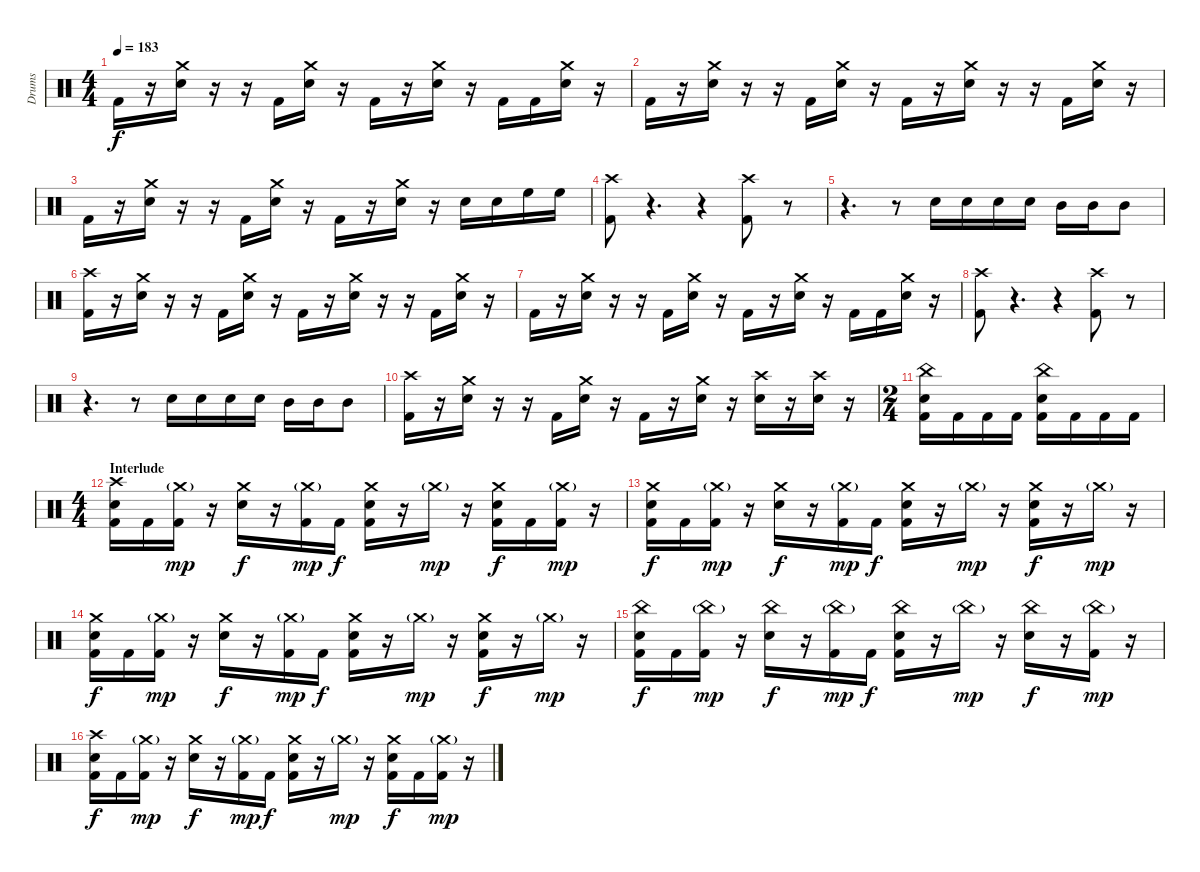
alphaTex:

\track ("Drums" "Drums") {instrument percussion}
\staff {score}
\articulation defaults
\ts (4 4)
\tempo 183
\clef neutral
\ks c "Kick (hit) 2".16{dy f}
r.16 ("Crash medium (hit)" "Electric Snare (hit)").16 r.16 r.16 "Kick (hit) 2".16 ("Crash medium (hit)" "Electric Snare (hit)").16 r.16 "Kick (hit) 2".16 r.16 ("Crash medium (hit)" "Electric Snare (hit)").16 r.16 "Kick (hit) 2".16 "Kick (hit) 2".16 ("Crash medium (hit)" "Electric Snare (hit)").16 r.16 |
"Kick (hit) 2".16 r.16 ("Crash medium (hit)" "Electric Snare (hit)").16 r.16 r.16 "Kick (hit) 2".16 ("Crash medium (hit)" "Electric Snare (hit)").16 r.16 "Kick (hit) 2".16 r.16 ("Crash medium (hit)" "Electric Snare (hit)").16 r.16 r.16 "Kick (hit) 2".16 ("Crash medium (hit)" "Electric Snare (hit)").16 r.16 |
"Kick (hit) 2".16 r.16 ("Crash medium (hit)" "Electric Snare (hit)").16 r.16 r.16 "Kick (hit) 2".16 ("Crash medium (hit)" "Electric Snare (hit)").16 r.16 "Kick (hit) 2".16 r.16 ("Crash medium (hit)" "Electric Snare (hit)").16 r.16 "Electric Snare (hit)".16 "Electric Snare (hit)".16 "High Floor Tom (hit)".16 "High Floor Tom (hit)".16 |
("Crash high (hit)" "Kick (hit) 2").8 r.4{d volume 0} r.4 ("Crash high (hit)" "Kick (hit) 2").8{volume 16} r.8{volume 0} |
r.4{d} r.8{volume 16} "Electric Snare (hit)".16 "Electric Snare (hit)".16 "Electric Snare (hit)".16 "Electric Snare (hit)".16 "Mid Tom (hit)".16 "Mid Tom (hit)".16 "Mid Tom (hit)".8 |
("Crash high (hit)" "Kick (hit) 2").16 r.16 ("Crash medium (hit)" "Electric Snare (hit)").16 r.16 r.16 "Kick (hit) 2".16 ("Crash medium (hit)" "Electric Snare (hit)").16 r.16 "Kick (hit) 2".16 r.16 ("Crash medium (hit)" "Electric Snare (hit)").16 r.16 r.16 "Kick (hit) 2".16 ("Crash medium (hit)" "Electric Snare (hit)").16 r.16 |
"Kick (hit) 2".16 r.16 ("Crash medium (hit)" "Electric Snare (hit)").16 r.16 r.16 "Kick (hit) 2".16 ("Crash medium (hit)" "Electric Snare (hit)").16 r.16 "Kick (hit) 2".16 r.16 ("Crash medium (hit)" "Electric Snare (hit)").16 r.16 "Kick (hit) 2".16 "Kick (hit) 2".16 ("Crash medium (hit)" "Electric Snare (hit)").16 r.16 |
("Crash high (hit)" "Kick (hit) 2").8 r.4{d volume 0} r.4 ("Crash high (hit)" "Kick (hit) 2").8{volume 16} r.8{volume 0} |
r.4{d} r.8{volume 16} "Electric Snare (hit)".16 "Electric Snare (hit)".16 "Electric Snare (hit)".16 "Electric Snare (hit)".16 "Mid Tom (hit)".16 "Mid Tom (hit)".16 "Mid Tom (hit)".8 |
("Crash high (hit)" "Kick (hit) 2").16 r.16 ("Crash medium (hit)" "Electric Snare (hit)").16 r.16 r.16 "Kick (hit) 2".16 ("Crash medium (hit)" "Electric Snare (hit)").16 r.16 "Kick (hit) 2".16 r.16 ("Crash medium (hit)" "Electric Snare (hit)").16 r.16 ("Crash high (hit)" "Electric Snare (hit)").16 r.16 ("Crash high (hit)" "Electric Snare (hit)").16 r.16 |
\ts (2 4)
("China (hit)" "Electric Snare (hit)" "Kick (hit) 2").16 "Kick (hit) 2".16 "Kick (hit) 2".16 "Kick (hit) 2".16 ("China (hit)" "Electric Snare (hit)" "Kick (hit) 2").16 "Kick (hit) 2".16 "Kick (hit) 2".16 "Kick (hit) 2".16 |
\ts (4 4)
\section ("" "Interlude")
("Crash high (hit)" "Electric Snare (hit)" "Kick (hit) 2").16 "Kick (hit) 2".16 ("Crash medium (hit)"{g} "Kick (hit) 2").16{dy mp} r.16 ("Crash medium (hit)" "Electric Snare (hit)").16{dy f} r.16 ("Crash medium (hit)"{g} "Kick (hit) 2").16{dy mp} "Kick (hit) 2".16{dy f} ("Crash medium (hit)" "Electric Snare (hit)" "Kick (hit) 2").16 r.16 "Crash medium (hit)"{g}.16{dy mp} r.16 ("Crash medium (hit)" "Electric Snare (hit)" "Kick (hit) 2").16{dy f} "Kick (hit) 2".16 ("Crash medium (hit)"{g} "Kick (hit) 2").16{dy mp} r.16 |
("Crash medium (hit)" "Electric Snare (hit)" "Kick (hit) 2").16{dy f} "Kick (hit) 2".16 ("Crash medium (hit)"{g} "Kick (hit) 2").16{dy mp} r.16 ("Crash medium (hit)" "Electric Snare (hit)").16{dy f} r.16 ("Crash medium (hit)"{g} "Kick (hit) 2").16{dy mp} "Kick (hit) 2".16{dy f} ("Crash medium (hit)" "Electric Snare (hit)" "Kick (hit) 2").16 r.16 "Crash medium (hit)"{g}.16{dy mp} r.16 ("Crash medium (hit)" "Electric Snare (hit)" "Kick (hit) 2").16{dy f} r.16 "Crash medium (hit)"{g}.16{dy mp} r.16 |
("Crash medium (hit)" "Electric Snare (hit)" "Kick (hit) 2").16{dy f} "Kick (hit) 2".16 ("Crash medium (hit)"{g} "Kick (hit) 2").16{dy mp} r.16 ("Crash medium (hit)" "Electric Snare (hit)").16{dy f} r.16 ("Crash medium (hit)"{g} "Kick (hit) 2").16{dy mp} "Kick (hit) 2".16{dy f} ("Crash medium (hit)" "Electric Snare (hit)" "Kick (hit) 2").16 r.16 "Crash medium (hit)"{g}.16{dy mp} r.16 ("Crash medium (hit)" "Electric Snare (hit)" "Kick (hit) 2").16{dy f} r.16 "Crash medium (hit)"{g}.16{dy mp} r.16 |
("China (hit)" "Electric Snare (hit)" "Kick (hit) 2").16{dy f} "Kick (hit) 2".16 ("China (hit)"{g} "Kick (hit) 2").16{dy mp} r.16 ("China (hit)" "Electric Snare (hit)").16{dy f} r.16 ("China (hit)"{g} "Kick (hit) 2").16{dy mp} "Kick (hit) 2".16{dy f} ("China (hit)" "Electric Snare (hit)" "Kick (hit) 2").16 r.16 "China (hit)"{g}.16{dy mp} r.16 ("China (hit)" "Electric Snare (hit)").16{dy f} r.16 ("China (hit)"{g} "Kick (hit) 2").16{dy mp} r.16 |
("Crash high (hit)" "Electric Snare (hit)" "Kick (hit) 2").16{dy f} "Kick (hit) 2".16 ("Crash medium (hit)"{g} "Kick (hit) 2").16{dy mp} r.16 ("Crash medium (hit)" "Electric Snare (hit)").16{dy f} r.16 ("Crash medium (hit)"{g} "Kick (hit) 2").16{dy mp} "Kick (hit) 2".16{dy f} ("Crash medium (hit)" "Electric Snare (hit)" "Kick (hit) 2").16 r.16 "Crash medium (hit)"{g}.16{dy mp} r.16 ("Crash medium (hit)" "Electric Snare (hit)" "Kick (hit) 2").16{dy f} "Kick (hit) 2".16 ("Crash medium (hit)"{g} "Kick (hit) 2").16{dy mp} r.16
